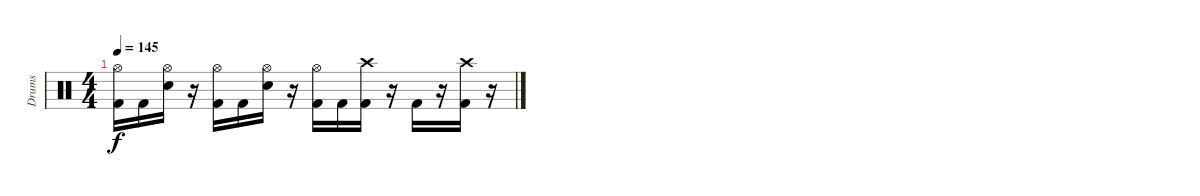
\track ("Drums" "Drums") {instrument percussion}
\staff {score}
\articulation defaults
\ts (4 4)
\tempo 145
\clef neutral
\ks c
("Hi-Hat (open)" "Kick (hit) 2").16{dy f} "Kick (hit) 2".16 ("Hi-Hat (open)" "Electric Snare (hit)").16 r.16 ("Hi-Hat (open)" "Kick (hit) 2").16 "Kick (hit) 2".16 ("Hi-Hat (open)" "Electric Snare (hit)").16 r.16 ("Hi-Hat (open)" "Kick (hit) 2").16 "Kick (hit) 2".16 ("Crash high (hit)" "Kick (hit) 2").16 r.16 "Kick (hit) 2".16 r.16 ("Crash high (hit)" "Kick (hit) 2").16 r.16
